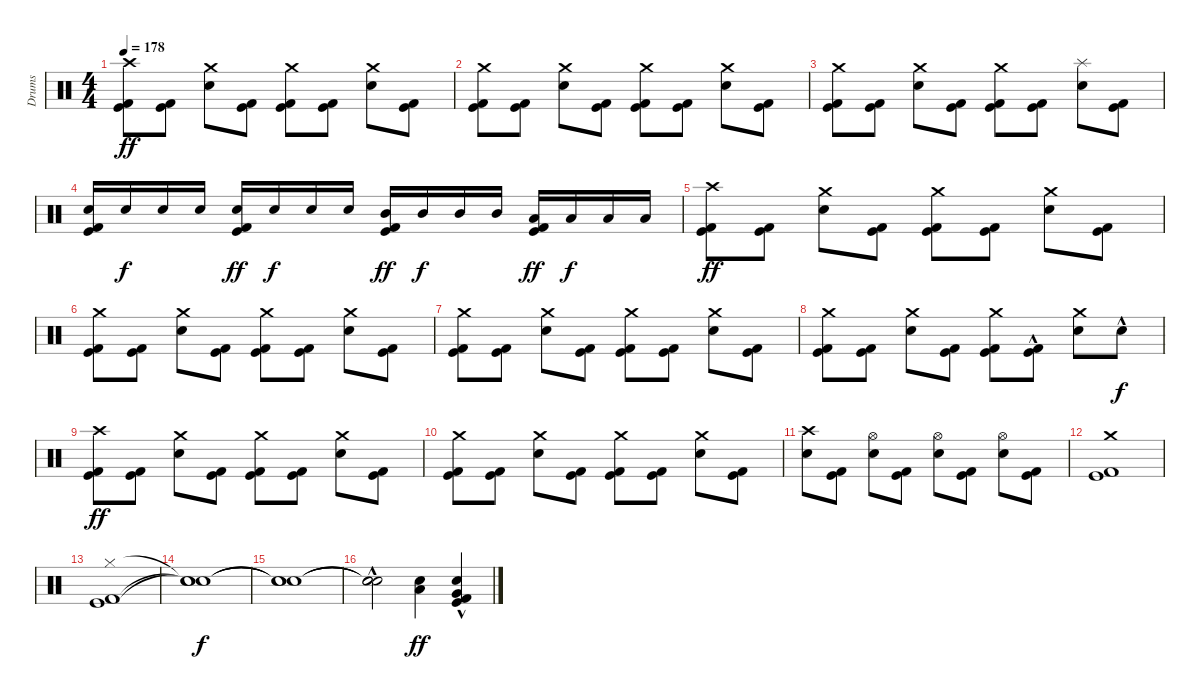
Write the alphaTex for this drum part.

\track ("Drums" "Drums") {instrument percussion}
\staff {score}
\articulation defaults
\ts (4 4)
\tempo 178
\clef neutral
\ks c
("Kick (hit)" "Kick (hit) 2" "Crash high (hit)").8{dy ff} ("Kick (hit)" "Kick (hit) 2").8 ("Electric Snare (hit)" "Crash medium (hit)").8 ("Kick (hit)" "Kick (hit) 2").8 ("Kick (hit)" "Kick (hit) 2" "Crash medium (hit)").8 ("Kick (hit)" "Kick (hit) 2").8 ("Electric Snare (hit)" "Crash medium (hit)").8 ("Kick (hit)" "Kick (hit) 2").8 |
("Kick (hit)" "Kick (hit) 2" "Crash medium (hit)").8 ("Kick (hit)" "Kick (hit) 2").8 ("Electric Snare (hit)" "Crash medium (hit)").8 ("Kick (hit)" "Kick (hit) 2").8 ("Kick (hit)" "Kick (hit) 2" "Crash medium (hit)").8 ("Kick (hit)" "Kick (hit) 2").8 ("Electric Snare (hit)" "Crash medium (hit)").8 ("Kick (hit)" "Kick (hit) 2").8 |
("Kick (hit)" "Kick (hit) 2" "Crash medium (hit)").8 ("Kick (hit)" "Kick (hit) 2").8 ("Electric Snare (hit)" "Crash medium (hit)").8 ("Kick (hit)" "Kick (hit) 2").8 ("Kick (hit)" "Kick (hit) 2" "Crash medium (hit)").8 ("Kick (hit)" "Kick (hit) 2").8 ("Electric Snare (hit)" "Splash (hit)").8 ("Kick (hit)" "Kick (hit) 2").8 |
("Kick (hit)" "Kick (hit) 2" "Electric Snare (hit)").16 "Electric Snare (hit)".16{dy f} "Electric Snare (hit)".16 "Electric Snare (hit)".16 ("Kick (hit)" "Kick (hit) 2" "Electric Snare (hit)").16{dy ff} "Electric Snare (hit)".16{dy f} "Electric Snare (hit)".16 "Electric Snare (hit)".16 ("Kick (hit)" "Kick (hit) 2" "Mid Tom (hit)").16{dy ff} "Mid Tom (hit)".16{dy f} "Mid Tom (hit)".16 "Mid Tom (hit)".16 ("Kick (hit)" "Kick (hit) 2" "Low Tom (hit)").16{dy ff} "Low Tom (hit)".16{dy f} "Low Tom (hit)".16 "Low Tom (hit)".16 |
("Kick (hit)" "Kick (hit) 2" "Crash high (hit)").8{dy ff} ("Kick (hit)" "Kick (hit) 2").8 ("Electric Snare (hit)" "Crash medium (hit)").8 ("Kick (hit)" "Kick (hit) 2").8 ("Kick (hit)" "Kick (hit) 2" "Crash medium (hit)").8 ("Kick (hit)" "Kick (hit) 2").8 ("Electric Snare (hit)" "Crash medium (hit)").8 ("Kick (hit)" "Kick (hit) 2").8 |
("Kick (hit)" "Kick (hit) 2" "Crash medium (hit)").8 ("Kick (hit)" "Kick (hit) 2").8 ("Electric Snare (hit)" "Crash medium (hit)").8 ("Kick (hit)" "Kick (hit) 2").8 ("Kick (hit)" "Kick (hit) 2" "Crash medium (hit)").8 ("Kick (hit)" "Kick (hit) 2").8 ("Electric Snare (hit)" "Crash medium (hit)").8 ("Kick (hit)" "Kick (hit) 2").8 |
("Kick (hit)" "Kick (hit) 2" "Crash medium (hit)").8 ("Kick (hit)" "Kick (hit) 2").8 ("Electric Snare (hit)" "Crash medium (hit)").8 ("Kick (hit)" "Kick (hit) 2").8 ("Kick (hit)" "Kick (hit) 2" "Crash medium (hit)").8 ("Kick (hit)" "Kick (hit) 2").8 ("Electric Snare (hit)" "Crash medium (hit)").8 ("Kick (hit)" "Kick (hit) 2").8 |
("Kick (hit)" "Kick (hit) 2" "Crash medium (hit)").8 ("Kick (hit)" "Kick (hit) 2").8 ("Electric Snare (hit)" "Crash medium (hit)").8 ("Kick (hit)" "Kick (hit) 2").8 ("Kick (hit)" "Kick (hit) 2" "Crash medium (hit)").8 ("Kick (hit)"{hac} "Kick (hit) 2"{hac}).8 ("Electric Snare (hit)" "Crash medium (hit)").8 "Electric Snare (hit)"{hac}.8{dy f} |
("Kick (hit)" "Kick (hit) 2" "Crash high (hit)").8{dy ff} ("Kick (hit)" "Kick (hit) 2").8 ("Electric Snare (hit)" "Crash medium (hit)").8 ("Kick (hit)" "Kick (hit) 2").8 ("Kick (hit)" "Kick (hit) 2" "Crash medium (hit)").8 ("Kick (hit)" "Kick (hit) 2").8 ("Electric Snare (hit)" "Crash medium (hit)").8 ("Kick (hit)" "Kick (hit) 2").8 |
("Kick (hit)" "Kick (hit) 2" "Crash medium (hit)").8 ("Kick (hit)" "Kick (hit) 2").8 ("Electric Snare (hit)" "Crash medium (hit)").8 ("Kick (hit)" "Kick (hit) 2").8 ("Kick (hit)" "Kick (hit) 2" "Crash medium (hit)").8 ("Kick (hit)" "Kick (hit) 2").8 ("Electric Snare (hit)" "Crash medium (hit)").8 ("Kick (hit)" "Kick (hit) 2").8 |
("Electric Snare (hit)" "Crash high (hit)").8 ("Kick (hit)" "Kick (hit) 2").8 ("Electric Snare (hit)" "Hi-Hat (open)").8 ("Kick (hit)" "Kick (hit) 2").8 ("Electric Snare (hit)" "Hi-Hat (open)").8 ("Kick (hit)" "Kick (hit) 2").8 ("Electric Snare (hit)" "Hi-Hat (open)").8 ("Kick (hit)" "Kick (hit) 2").8 |
("Kick (hit)" "Kick (hit) 2" "Crash medium (hit)").1 |
("Kick (hit)" "Kick (hit) 2" "Hi-Hat (closed)").1 |
("Snare (hit)"{t} "Snare (hit)"{t} "Snare (hit)"{t}).1{dy f} |
("Snare (hit)"{t} "Snare (hit)"{t} "Snare (hit)"{t}).1 |
("Snare (hit)"{hac t} "Snare (hit)"{hac t} "Snare (hit)"{t}).2 ("Low Tom (hit)" "Electric Snare (hit)").4{dy ff} ("Kick (hit)" "Kick (hit) 2" "Very Low Tom (hit)"{hac} "Electric Snare (hit)"{hac}).4
